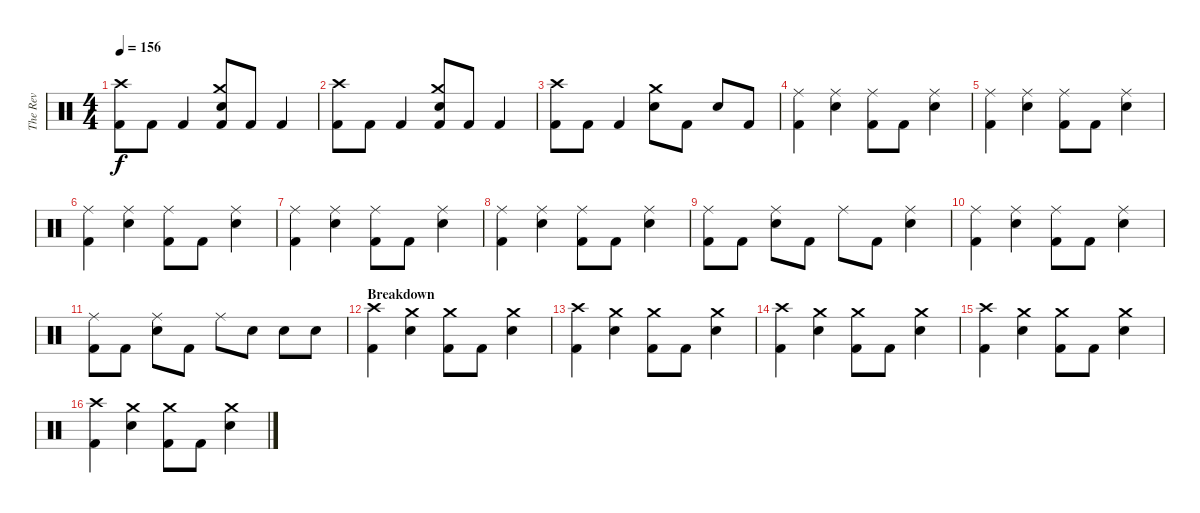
\track ("The Rev" "The Rev") {instrument percussion}
\staff {score}
\articulation defaults
\ts (4 4)
\tempo 156
\clef neutral
\ks c
("Crash high (hit)" "Kick (hit) 2").8{dy f} "Kick (hit) 2".8 "Kick (hit) 2".4 ("Crash medium (hit)" "Electric Snare (hit)" "Kick (hit) 2").8 "Kick (hit) 2".8 "Kick (hit) 2".4 |
("Crash high (hit)" "Kick (hit) 2").8 "Kick (hit) 2".8 "Kick (hit) 2".4 ("Crash medium (hit)" "Electric Snare (hit)" "Kick (hit) 2").8 "Kick (hit) 2".8 "Kick (hit) 2".4 |
("Crash high (hit)" "Kick (hit) 2").8 "Kick (hit) 2".8 "Kick (hit) 2".4 ("Crash medium (hit)" "Electric Snare (hit)").8 "Kick (hit) 2".8 "Electric Snare (hit)".8 "Kick (hit) 2".8 |
("Ride (middle)" "Kick (hit) 2").4 ("Ride (middle)" "Electric Snare (hit)").4 ("Ride (middle)" "Kick (hit) 2").8 "Kick (hit) 2".8 ("Ride (middle)" "Electric Snare (hit)").4 |
("Ride (middle)" "Kick (hit) 2").4 ("Ride (middle)" "Electric Snare (hit)").4 ("Ride (middle)" "Kick (hit) 2").8 "Kick (hit) 2".8 ("Ride (middle)" "Electric Snare (hit)").4 |
("Ride (middle)" "Kick (hit) 2").4 ("Ride (middle)" "Electric Snare (hit)").4 ("Ride (middle)" "Kick (hit) 2").8 "Kick (hit) 2".8 ("Ride (middle)" "Electric Snare (hit)").4 |
("Ride (middle)" "Kick (hit) 2").4 ("Ride (middle)" "Electric Snare (hit)").4 ("Ride (middle)" "Kick (hit) 2").8 "Kick (hit) 2".8 ("Ride (middle)" "Electric Snare (hit)").4 |
("Ride (middle)" "Kick (hit) 2").4 ("Ride (middle)" "Electric Snare (hit)").4 ("Ride (middle)" "Kick (hit) 2").8 "Kick (hit) 2".8 ("Ride (middle)" "Electric Snare (hit)").4 |
("Ride (middle)" "Kick (hit) 2").8 "Kick (hit) 2".8 ("Ride (middle)" "Electric Snare (hit)").8 "Kick (hit) 2".8 "Ride (middle)".8 "Kick (hit) 2".8 ("Ride (middle)" "Electric Snare (hit)").4 |
("Ride (middle)" "Kick (hit) 2").4 ("Ride (middle)" "Electric Snare (hit)").4 ("Ride (middle)" "Kick (hit) 2").8 "Kick (hit) 2".8 ("Ride (middle)" "Electric Snare (hit)").4 |
("Ride (middle)" "Kick (hit) 2").8 "Kick (hit) 2".8 ("Ride (middle)" "Electric Snare (hit)").8 "Kick (hit) 2".8 "Ride (middle)".8 "Electric Snare (hit)".8 "Electric Snare (hit)".8 "Electric Snare (hit)".8 |
\section ("" "Breakdown")
("Crash high (hit)" "Kick (hit) 2").4 ("Crash medium (hit)" "Electric Snare (hit)").4 ("Crash medium (hit)" "Kick (hit) 2").8 "Kick (hit) 2".8 ("Crash medium (hit)" "Electric Snare (hit)").4 |
("Crash high (hit)" "Kick (hit) 2").4 ("Crash medium (hit)" "Electric Snare (hit)").4 ("Crash medium (hit)" "Kick (hit) 2").8 "Kick (hit) 2".8 ("Crash medium (hit)" "Electric Snare (hit)").4 |
("Crash high (hit)" "Kick (hit) 2").4 ("Crash medium (hit)" "Electric Snare (hit)").4 ("Crash medium (hit)" "Kick (hit) 2").8 "Kick (hit) 2".8 ("Crash medium (hit)" "Electric Snare (hit)").4 |
("Crash high (hit)" "Kick (hit) 2").4 ("Crash medium (hit)" "Electric Snare (hit)").4 ("Crash medium (hit)" "Kick (hit) 2").8 "Kick (hit) 2".8 ("Crash medium (hit)" "Electric Snare (hit)").4 |
("Crash high (hit)" "Kick (hit) 2").4 ("Crash medium (hit)" "Electric Snare (hit)").4 ("Crash medium (hit)" "Kick (hit) 2").8 "Kick (hit) 2".8 ("Crash medium (hit)" "Electric Snare (hit)").4
